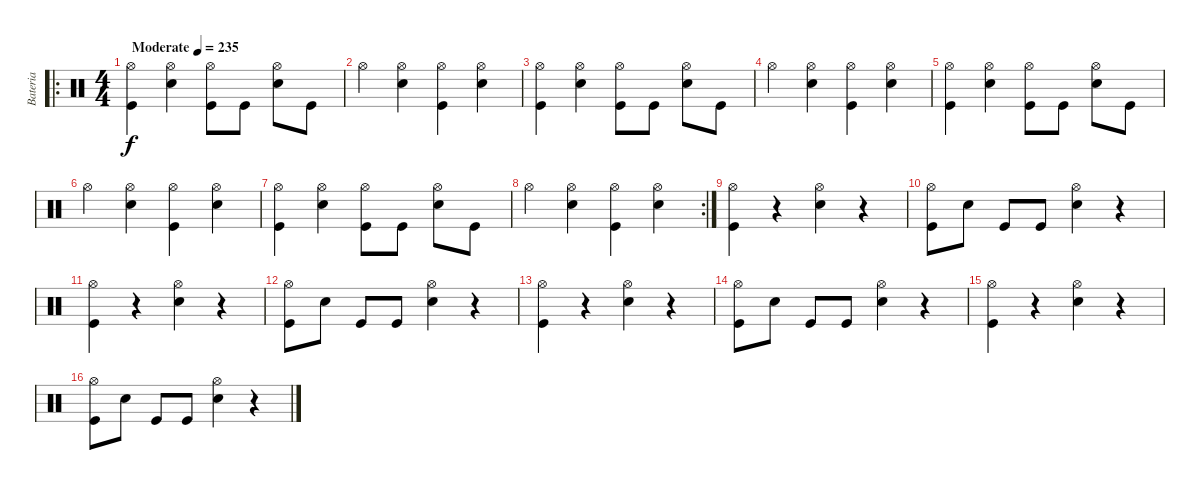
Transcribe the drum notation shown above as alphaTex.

\track ("Bateria" "Bateria") {instrument percussion}
\staff {score}
\articulation defaults
\ro
\ts (4 4)
\tempo (235 "Moderate")
\clef neutral
\ks c
("Hi-Hat (open)" "Kick (hit)").4{dy f} ("Hi-Hat (open)" "Electric Snare (hit)").4 ("Hi-Hat (open)" "Kick (hit)").8 "Kick (hit)".8 ("Hi-Hat (open)" "Electric Snare (hit)").8 "Kick (hit)".8 |
"Hi-Hat (open)".4 ("Hi-Hat (open)" "Electric Snare (hit)").4 ("Hi-Hat (open)" "Kick (hit)").4 ("Hi-Hat (open)" "Electric Snare (hit)").4 |
("Hi-Hat (open)" "Kick (hit)").4 ("Hi-Hat (open)" "Electric Snare (hit)").4 ("Hi-Hat (open)" "Kick (hit)").8 "Kick (hit)".8 ("Hi-Hat (open)" "Electric Snare (hit)").8 "Kick (hit)".8 |
"Hi-Hat (open)".4 ("Hi-Hat (open)" "Electric Snare (hit)").4 ("Hi-Hat (open)" "Kick (hit)").4 ("Hi-Hat (open)" "Electric Snare (hit)").4 |
("Hi-Hat (open)" "Kick (hit)").4 ("Hi-Hat (open)" "Electric Snare (hit)").4 ("Hi-Hat (open)" "Kick (hit)").8 "Kick (hit)".8 ("Hi-Hat (open)" "Electric Snare (hit)").8 "Kick (hit)".8 |
"Hi-Hat (open)".4 ("Hi-Hat (open)" "Electric Snare (hit)").4 ("Hi-Hat (open)" "Kick (hit)").4 ("Hi-Hat (open)" "Electric Snare (hit)").4 |
("Hi-Hat (open)" "Kick (hit)").4 ("Hi-Hat (open)" "Electric Snare (hit)").4 ("Hi-Hat (open)" "Kick (hit)").8 "Kick (hit)".8 ("Hi-Hat (open)" "Electric Snare (hit)").8 "Kick (hit)".8 |
\rc 2 "Hi-Hat (open)".4
("Hi-Hat (open)" "Electric Snare (hit)").4 ("Hi-Hat (open)" "Kick (hit)").4 ("Hi-Hat (open)" "Electric Snare (hit)").4 |
("Hi-Hat (open)" "Kick (hit)").4 r.4 ("Hi-Hat (open)" "Electric Snare (hit)").4 r.4 |
("Hi-Hat (open)" "Kick (hit)").8 "Electric Snare (hit)".8 "Kick (hit)".8 "Kick (hit)".8 ("Hi-Hat (open)" "Electric Snare (hit)").4 r.4 |
("Hi-Hat (open)" "Kick (hit)").4 r.4 ("Hi-Hat (open)" "Electric Snare (hit)").4 r.4 |
("Hi-Hat (open)" "Kick (hit)").8 "Electric Snare (hit)".8 "Kick (hit)".8 "Kick (hit)".8 ("Hi-Hat (open)" "Electric Snare (hit)").4 r.4 |
("Hi-Hat (open)" "Kick (hit)").4 r.4 ("Hi-Hat (open)" "Electric Snare (hit)").4 r.4 |
("Hi-Hat (open)" "Kick (hit)").8 "Electric Snare (hit)".8 "Kick (hit)".8 "Kick (hit)".8 ("Hi-Hat (open)" "Electric Snare (hit)").4 r.4 |
("Hi-Hat (open)" "Kick (hit)").4 r.4 ("Hi-Hat (open)" "Electric Snare (hit)").4 r.4 |
("Hi-Hat (open)" "Kick (hit)").8 "Electric Snare (hit)".8 "Kick (hit)".8 "Kick (hit)".8 ("Hi-Hat (open)" "Electric Snare (hit)").4 r.4
